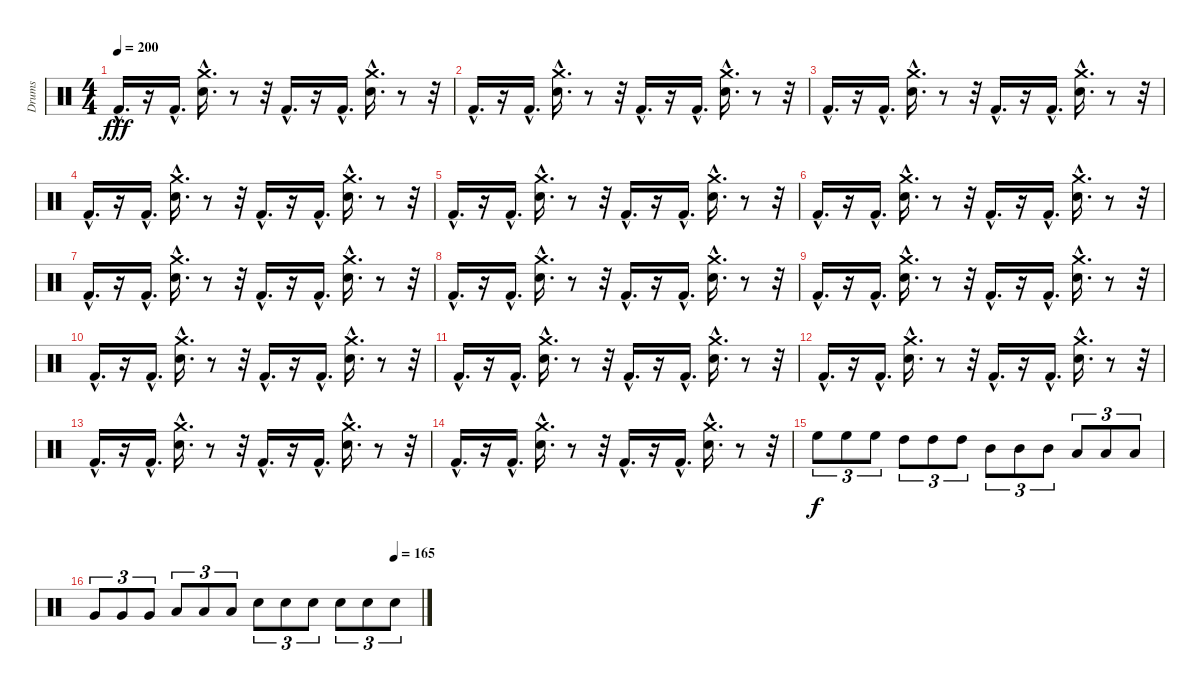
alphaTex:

\track ("Drums" "Drums") {instrument percussion}
\staff {score}
\articulation defaults
\ts (4 4)
\tempo 200
\clef neutral
\ks c "Kick (hit) 2"{hac}.16{d dy fff}
r.16 "Kick (hit) 2"{hac}.16{d} ("Crash medium (hit)"{hac} "Electric Snare (hit)"{hac}).16{d} r.8 r.32 "Kick (hit) 2"{hac}.16{d} r.16 "Kick (hit) 2"{hac}.16{d} ("Crash medium (hit)"{hac} "Electric Snare (hit)"{hac}).16{d} r.8 r.32 |
"Kick (hit) 2"{hac}.16{d} r.16 "Kick (hit) 2"{hac}.16{d} ("Crash medium (hit)"{hac} "Electric Snare (hit)"{hac}).16{d} r.8 r.32 "Kick (hit) 2"{hac}.16{d} r.16 "Kick (hit) 2"{hac}.16{d} ("Crash medium (hit)"{hac} "Electric Snare (hit)"{hac}).16{d} r.8 r.32 |
"Kick (hit) 2"{hac}.16{d} r.16 "Kick (hit) 2"{hac}.16{d} ("Crash medium (hit)"{hac} "Electric Snare (hit)"{hac}).16{d} r.8 r.32 "Kick (hit) 2"{hac}.16{d} r.16 "Kick (hit) 2"{hac}.16{d} ("Crash medium (hit)"{hac} "Electric Snare (hit)"{hac}).16{d} r.8 r.32 |
"Kick (hit) 2"{hac}.16{d} r.16 "Kick (hit) 2"{hac}.16{d} ("Crash medium (hit)"{hac} "Electric Snare (hit)"{hac}).16{d} r.8 r.32 "Kick (hit) 2"{hac}.16{d} r.16 "Kick (hit) 2"{hac}.16{d} ("Crash medium (hit)"{hac} "Electric Snare (hit)"{hac}).16{d} r.8 r.32 |
"Kick (hit) 2"{hac}.16{d} r.16 "Kick (hit) 2"{hac}.16{d} ("Crash medium (hit)"{hac} "Electric Snare (hit)"{hac}).16{d} r.8 r.32 "Kick (hit) 2"{hac}.16{d} r.16 "Kick (hit) 2"{hac}.16{d} ("Crash medium (hit)"{hac} "Electric Snare (hit)"{hac}).16{d} r.8 r.32 |
"Kick (hit) 2"{hac}.16{d} r.16 "Kick (hit) 2"{hac}.16{d} ("Crash medium (hit)"{hac} "Electric Snare (hit)"{hac}).16{d} r.8 r.32 "Kick (hit) 2"{hac}.16{d} r.16 "Kick (hit) 2"{hac}.16{d} ("Crash medium (hit)"{hac} "Electric Snare (hit)"{hac}).16{d} r.8 r.32 |
"Kick (hit) 2"{hac}.16{d} r.16 "Kick (hit) 2"{hac}.16{d} ("Crash medium (hit)"{hac} "Electric Snare (hit)"{hac}).16{d} r.8 r.32 "Kick (hit) 2"{hac}.16{d} r.16 "Kick (hit) 2"{hac}.16{d} ("Crash medium (hit)"{hac} "Electric Snare (hit)"{hac}).16{d} r.8 r.32 |
"Kick (hit) 2"{hac}.16{d} r.16 "Kick (hit) 2"{hac}.16{d} ("Crash medium (hit)"{hac} "Electric Snare (hit)"{hac}).16{d} r.8 r.32 "Kick (hit) 2"{hac}.16{d} r.16 "Kick (hit) 2"{hac}.16{d} ("Crash medium (hit)"{hac} "Electric Snare (hit)"{hac}).16{d} r.8 r.32 |
"Kick (hit) 2"{hac}.16{d} r.16 "Kick (hit) 2"{hac}.16{d} ("Crash medium (hit)"{hac} "Electric Snare (hit)"{hac}).16{d} r.8 r.32 "Kick (hit) 2"{hac}.16{d} r.16 "Kick (hit) 2"{hac}.16{d} ("Crash medium (hit)"{hac} "Electric Snare (hit)"{hac}).16{d} r.8 r.32 |
"Kick (hit) 2"{hac}.16{d} r.16 "Kick (hit) 2"{hac}.16{d} ("Crash medium (hit)"{hac} "Electric Snare (hit)"{hac}).16{d} r.8 r.32 "Kick (hit) 2"{hac}.16{d} r.16 "Kick (hit) 2"{hac}.16{d} ("Crash medium (hit)"{hac} "Electric Snare (hit)"{hac}).16{d} r.8 r.32 |
"Kick (hit) 2"{hac}.16{d} r.16 "Kick (hit) 2"{hac}.16{d} ("Crash medium (hit)"{hac} "Electric Snare (hit)"{hac}).16{d} r.8 r.32 "Kick (hit) 2"{hac}.16{d} r.16 "Kick (hit) 2"{hac}.16{d} ("Crash medium (hit)"{hac} "Electric Snare (hit)"{hac}).16{d} r.8 r.32 |
"Kick (hit) 2"{hac}.16{d} r.16 "Kick (hit) 2"{hac}.16{d} ("Crash medium (hit)"{hac} "Electric Snare (hit)"{hac}).16{d} r.8 r.32 "Kick (hit) 2"{hac}.16{d} r.16 "Kick (hit) 2"{hac}.16{d} ("Crash medium (hit)"{hac} "Electric Snare (hit)"{hac}).16{d} r.8 r.32 |
"Kick (hit) 2"{hac}.16{d} r.16 "Kick (hit) 2"{hac}.16{d} ("Crash medium (hit)"{hac} "Electric Snare (hit)"{hac}).16{d} r.8 r.32 "Kick (hit) 2"{hac}.16{d} r.16 "Kick (hit) 2"{hac}.16{d} ("Crash medium (hit)"{hac} "Electric Snare (hit)"{hac}).16{d} r.8 r.32 |
"Kick (hit) 2"{hac}.16{d} r.16 "Kick (hit) 2"{hac}.16{d} ("Crash medium (hit)"{hac} "Electric Snare (hit)"{hac}).16{d} r.8 r.32 "Kick (hit) 2"{hac}.16{d} r.16 "Kick (hit) 2"{hac}.16{d} ("Crash medium (hit)"{hac} "Electric Snare (hit)"{hac}).16{d} r.8 r.32 |
"High Floor Tom (hit)".8{tu (3 2) dy f} "High Floor Tom (hit)".8{tu (3 2)} "High Floor Tom (hit)".8{tu (3 2)} "High Tom (hit)".8{tu (3 2)} "High Tom (hit)".8{tu (3 2)} "High Tom (hit)".8{tu (3 2)} "Mid Tom (hit)".8{tu (3 2)} "Mid Tom (hit)".8{tu (3 2)} "Mid Tom (hit)".8{tu (3 2)} "Low Tom (hit)".8{tu (3 2)} "Low Tom (hit)".8{tu (3 2)} "Low Tom (hit)".8{tu (3 2)} |
\tempo (165 0.9166666666666666)
"Very Low Tom (hit)".8{tu (3 2)} "Very Low Tom (hit)".8{tu (3 2)} "Very Low Tom (hit)".8{tu (3 2)} "Low Floor Tom (hit)".8{tu (3 2)} "Low Floor Tom (hit)".8{tu (3 2)} "Low Floor Tom (hit)".8{tu (3 2)} "Electric Snare (hit)".8{tu (3 2)} "Electric Snare (hit)".8{tu (3 2)} "Electric Snare (hit)".8{tu (3 2)} "Electric Snare (hit)".8{tu (3 2)} "Electric Snare (hit)".8{tu (3 2)} "Electric Snare (hit)".8{tu (3 2)}
